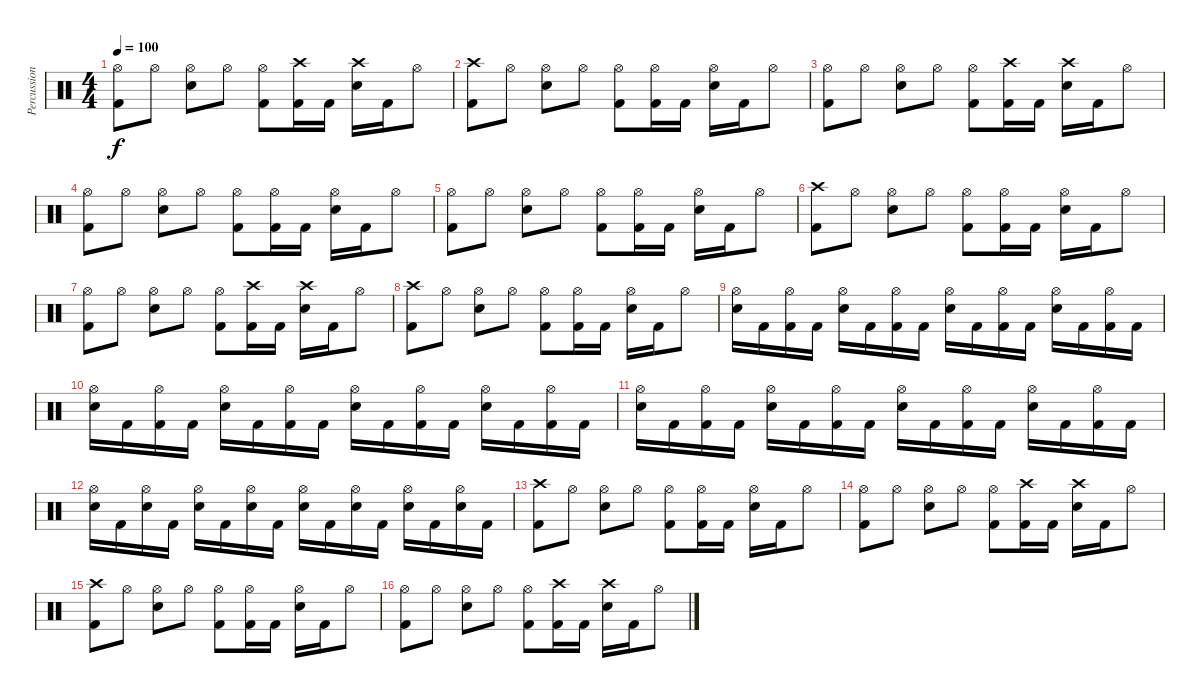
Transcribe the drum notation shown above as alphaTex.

\track ("Percussion" "Percussion") {instrument percussion}
\staff {score}
\articulation defaults
\ts (4 4)
\tempo 100
\clef neutral
\ks c
("Hi-Hat (open)" "Kick (hit) 2").8{dy f} "Hi-Hat (open)".8 ("Hi-Hat (open)" "Electric Snare (hit)").8 "Hi-Hat (open)".8 ("Hi-Hat (open)" "Kick (hit) 2").8 ("Crash high (hit)" "Kick (hit) 2").16 "Kick (hit) 2".16 ("Crash high (hit)" "Electric Snare (hit)").16 "Kick (hit) 2".16 "Hi-Hat (open)".8 |
("Crash high (hit)" "Kick (hit) 2").8 "Hi-Hat (open)".8 ("Hi-Hat (open)" "Electric Snare (hit)").8 "Hi-Hat (open)".8 ("Hi-Hat (open)" "Kick (hit) 2").8 ("Hi-Hat (open)" "Kick (hit) 2").16 "Kick (hit) 2".16 ("Hi-Hat (open)" "Electric Snare (hit)").16 "Kick (hit) 2".16 "Hi-Hat (open)".8 |
("Hi-Hat (open)" "Kick (hit) 2").8 "Hi-Hat (open)".8 ("Hi-Hat (open)" "Electric Snare (hit)").8 "Hi-Hat (open)".8 ("Hi-Hat (open)" "Kick (hit) 2").8 ("Crash high (hit)" "Kick (hit) 2").16 "Kick (hit) 2".16 ("Crash high (hit)" "Electric Snare (hit)").16 "Kick (hit) 2".16 "Hi-Hat (open)".8 |
("Hi-Hat (open)" "Kick (hit) 2").8 "Hi-Hat (open)".8 ("Hi-Hat (open)" "Electric Snare (hit)").8 "Hi-Hat (open)".8 ("Hi-Hat (open)" "Kick (hit) 2").8 ("Hi-Hat (open)" "Kick (hit) 2").16 "Kick (hit) 2".16 ("Hi-Hat (open)" "Electric Snare (hit)").16 "Kick (hit) 2".16 "Hi-Hat (open)".8 |
("Hi-Hat (open)" "Kick (hit) 2").8 "Hi-Hat (open)".8 ("Hi-Hat (open)" "Electric Snare (hit)").8 "Hi-Hat (open)".8 ("Hi-Hat (open)" "Kick (hit) 2").8 ("Hi-Hat (open)" "Kick (hit) 2").16 "Kick (hit) 2".16 ("Hi-Hat (open)" "Electric Snare (hit)").16 "Kick (hit) 2".16 "Hi-Hat (open)".8 |
("Crash high (hit)" "Kick (hit) 2").8 "Hi-Hat (open)".8 ("Hi-Hat (open)" "Electric Snare (hit)").8 "Hi-Hat (open)".8 ("Hi-Hat (open)" "Kick (hit) 2").8 ("Hi-Hat (open)" "Kick (hit) 2").16 "Kick (hit) 2".16 ("Hi-Hat (open)" "Electric Snare (hit)").16 "Kick (hit) 2".16 "Hi-Hat (open)".8 |
("Hi-Hat (open)" "Kick (hit) 2").8 "Hi-Hat (open)".8 ("Hi-Hat (open)" "Electric Snare (hit)").8 "Hi-Hat (open)".8 ("Hi-Hat (open)" "Kick (hit) 2").8 ("Crash high (hit)" "Kick (hit) 2").16 "Kick (hit) 2".16 ("Crash high (hit)" "Electric Snare (hit)").16 "Kick (hit) 2".16 "Hi-Hat (open)".8 |
("Crash high (hit)" "Kick (hit) 2").8 "Hi-Hat (open)".8 ("Hi-Hat (open)" "Electric Snare (hit)").8 "Hi-Hat (open)".8 ("Hi-Hat (open)" "Kick (hit) 2").8 ("Hi-Hat (open)" "Kick (hit) 2").16 "Kick (hit) 2".16 ("Hi-Hat (open)" "Electric Snare (hit)").16 "Kick (hit) 2".16 "Hi-Hat (open)".8 |
("Electric Snare (hit)" "Hi-Hat (open)").16 "Kick (hit) 2".16 ("Kick (hit) 2" "Hi-Hat (open)").16 "Kick (hit) 2".16 ("Electric Snare (hit)" "Hi-Hat (open)").16 "Kick (hit) 2".16 ("Kick (hit) 2" "Hi-Hat (open)").16 "Kick (hit) 2".16 ("Electric Snare (hit)" "Hi-Hat (open)").16 "Kick (hit) 2".16 ("Kick (hit) 2" "Hi-Hat (open)").16 "Kick (hit) 2".16 ("Electric Snare (hit)" "Hi-Hat (open)").16 "Kick (hit) 2".16 ("Kick (hit) 2" "Hi-Hat (open)").16 "Kick (hit) 2".16 |
("Electric Snare (hit)" "Hi-Hat (open)").16 "Kick (hit) 2".16 ("Kick (hit) 2" "Hi-Hat (open)").16 "Kick (hit) 2".16 ("Electric Snare (hit)" "Hi-Hat (open)").16 "Kick (hit) 2".16 ("Kick (hit) 2" "Hi-Hat (open)").16 "Kick (hit) 2".16 ("Electric Snare (hit)" "Hi-Hat (open)").16 "Kick (hit) 2".16 ("Kick (hit) 2" "Hi-Hat (open)").16 "Kick (hit) 2".16 ("Electric Snare (hit)" "Hi-Hat (open)").16 "Kick (hit) 2".16 ("Kick (hit) 2" "Hi-Hat (open)").16 "Kick (hit) 2".16 |
("Electric Snare (hit)" "Hi-Hat (open)").16 "Kick (hit) 2".16 ("Kick (hit) 2" "Hi-Hat (open)").16 "Kick (hit) 2".16 ("Electric Snare (hit)" "Hi-Hat (open)").16 "Kick (hit) 2".16 ("Kick (hit) 2" "Hi-Hat (open)").16 "Kick (hit) 2".16 ("Electric Snare (hit)" "Hi-Hat (open)").16 "Kick (hit) 2".16 ("Kick (hit) 2" "Hi-Hat (open)").16 "Kick (hit) 2".16 ("Electric Snare (hit)" "Hi-Hat (open)").16 "Kick (hit) 2".16 ("Kick (hit) 2" "Hi-Hat (open)").16 "Kick (hit) 2".16 |
("Electric Snare (hit)" "Hi-Hat (open)").16 "Kick (hit) 2".16 ("Electric Snare (hit)" "Hi-Hat (open)").16 "Kick (hit) 2".16 ("Electric Snare (hit)" "Hi-Hat (open)").16 "Kick (hit) 2".16 ("Electric Snare (hit)" "Hi-Hat (open)").16 "Kick (hit) 2".16 ("Electric Snare (hit)" "Hi-Hat (open)").16 "Kick (hit) 2".16 ("Electric Snare (hit)" "Hi-Hat (open)").16 "Kick (hit) 2".16 ("Electric Snare (hit)" "Hi-Hat (open)").16 "Kick (hit) 2".16 ("Electric Snare (hit)" "Hi-Hat (open)").16 "Kick (hit) 2".16 |
("Crash high (hit)" "Kick (hit) 2").8 "Hi-Hat (open)".8 ("Hi-Hat (open)" "Electric Snare (hit)").8 "Hi-Hat (open)".8 ("Hi-Hat (open)" "Kick (hit) 2").8 ("Hi-Hat (open)" "Kick (hit) 2").16 "Kick (hit) 2".16 ("Hi-Hat (open)" "Electric Snare (hit)").16 "Kick (hit) 2".16 "Hi-Hat (open)".8 |
("Hi-Hat (open)" "Kick (hit) 2").8 "Hi-Hat (open)".8 ("Hi-Hat (open)" "Electric Snare (hit)").8 "Hi-Hat (open)".8 ("Hi-Hat (open)" "Kick (hit) 2").8 ("Crash high (hit)" "Kick (hit) 2").16 "Kick (hit) 2".16 ("Crash high (hit)" "Electric Snare (hit)").16 "Kick (hit) 2".16 "Hi-Hat (open)".8 |
("Crash high (hit)" "Kick (hit) 2").8 "Hi-Hat (open)".8 ("Hi-Hat (open)" "Electric Snare (hit)").8 "Hi-Hat (open)".8 ("Hi-Hat (open)" "Kick (hit) 2").8 ("Hi-Hat (open)" "Kick (hit) 2").16 "Kick (hit) 2".16 ("Hi-Hat (open)" "Electric Snare (hit)").16 "Kick (hit) 2".16 "Hi-Hat (open)".8 |
("Hi-Hat (open)" "Kick (hit) 2").8 "Hi-Hat (open)".8 ("Hi-Hat (open)" "Electric Snare (hit)").8 "Hi-Hat (open)".8 ("Hi-Hat (open)" "Kick (hit) 2").8 ("Crash high (hit)" "Kick (hit) 2").16 "Kick (hit) 2".16 ("Crash high (hit)" "Electric Snare (hit)").16 "Kick (hit) 2".16 "Hi-Hat (open)".8
